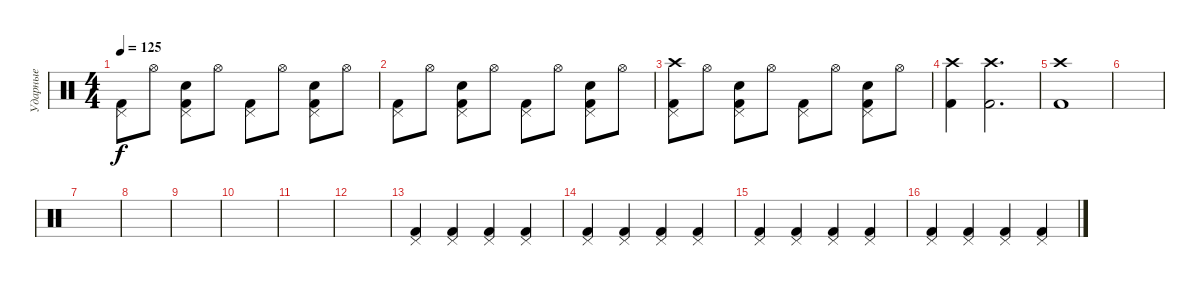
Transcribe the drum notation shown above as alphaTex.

\track ("Ударные" "Ударные") {instrument percussion}
\staff {score}
\articulation defaults
\ts (4 4)
\tempo 125
\clef neutral
\ks c
("Kick (hit) 2" "Pedal Hi-Hat (hit)").8{dy f} "Hi-Hat (open)".8 ("Kick (hit) 2" "Pedal Hi-Hat (hit)" "Hand Clap (hit)").8 "Hi-Hat (open)".8 ("Kick (hit) 2" "Pedal Hi-Hat (hit)").8 "Hi-Hat (open)".8 ("Kick (hit) 2" "Pedal Hi-Hat (hit)" "Hand Clap (hit)").8 "Hi-Hat (open)".8 |
("Kick (hit) 2" "Pedal Hi-Hat (hit)").8 "Hi-Hat (open)".8 ("Kick (hit) 2" "Pedal Hi-Hat (hit)" "Hand Clap (hit)").8 "Hi-Hat (open)".8 ("Kick (hit) 2" "Pedal Hi-Hat (hit)").8 "Hi-Hat (open)".8 ("Kick (hit) 2" "Pedal Hi-Hat (hit)" "Hand Clap (hit)").8 "Hi-Hat (open)".8 |
("Kick (hit) 2" "Pedal Hi-Hat (hit)" "Crash high (hit)").8 "Hi-Hat (open)".8 ("Kick (hit) 2" "Pedal Hi-Hat (hit)" "Hand Clap (hit)").8 "Hi-Hat (open)".8 ("Kick (hit) 2" "Pedal Hi-Hat (hit)").8 "Hi-Hat (open)".8 ("Kick (hit) 2" "Pedal Hi-Hat (hit)" "Hand Clap (hit)").8 "Hi-Hat (open)".8 |
("Kick (hit) 2" "Crash high (hit)").4 ("Kick (hit) 2" "Crash high (hit)").2{d} |
("Kick (hit) 2" "Crash high (hit)").1 |
|
|
|
|
|
|
|
("Kick (hit) 2" "Pedal Hi-Hat (hit)").4 ("Kick (hit) 2" "Pedal Hi-Hat (hit)").4 ("Kick (hit) 2" "Pedal Hi-Hat (hit)").4 ("Kick (hit) 2" "Pedal Hi-Hat (hit)").4 |
("Kick (hit) 2" "Pedal Hi-Hat (hit)").4 ("Kick (hit) 2" "Pedal Hi-Hat (hit)").4 ("Kick (hit) 2" "Pedal Hi-Hat (hit)").4 ("Kick (hit) 2" "Pedal Hi-Hat (hit)").4 |
("Kick (hit) 2" "Pedal Hi-Hat (hit)").4 ("Kick (hit) 2" "Pedal Hi-Hat (hit)").4 ("Kick (hit) 2" "Pedal Hi-Hat (hit)").4 ("Kick (hit) 2" "Pedal Hi-Hat (hit)").4 |
("Kick (hit) 2" "Pedal Hi-Hat (hit)").4 ("Kick (hit) 2" "Pedal Hi-Hat (hit)").4 ("Kick (hit) 2" "Pedal Hi-Hat (hit)").4 ("Kick (hit) 2" "Pedal Hi-Hat (hit)").4
